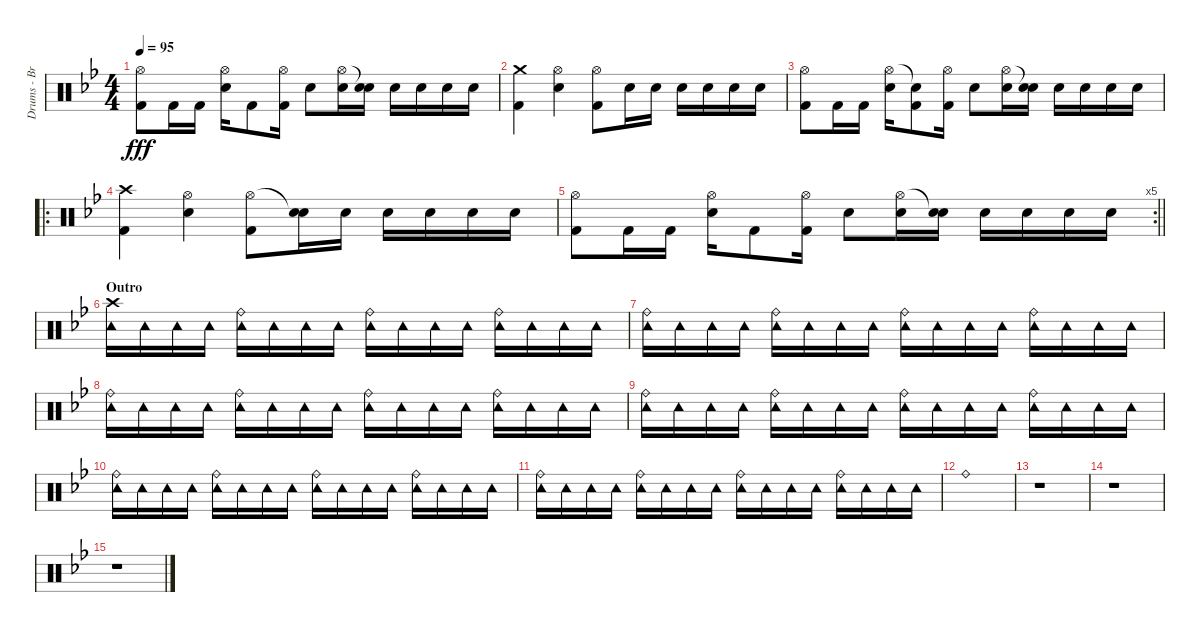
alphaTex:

\track ("Drums - Brooks Wackerman" "Drums - Br") {instrument percussion}
\staff {score}
\articulation defaults
\ts (4 4)
\tempo 95
\clef neutral
\ks bb
("Hi-Hat (open)" "Kick (hit) 2").8{dy fff} "Kick (hit) 2".16 "Kick (hit) 2".16 ("Hi-Hat (open)" "Electric Snare (hit)").16 "Kick (hit) 2".8 ("Hi-Hat (open)" "Kick (hit) 2").16 "Electric Snare (hit)".8 ("Hi-Hat (open)" "Electric Snare (hit)").16 ("Snare (hit)"{t} "Electric Snare (hit)").16 "Electric Snare (hit)".16 "Electric Snare (hit)".16 "Electric Snare (hit)".16 "Electric Snare (hit)".16 |
("Kick (hit) 2" "Crash medium (hit)").4 ("Hi-Hat (open)" "Electric Snare (hit)").4 ("Kick (hit) 2" "Hi-Hat (open)").8 "Electric Snare (hit)".16 "Electric Snare (hit)".16 "Electric Snare (hit)".16 "Electric Snare (hit)".16 "Electric Snare (hit)".16 "Electric Snare (hit)".16 |
("Hi-Hat (open)" "Kick (hit) 2").8 "Kick (hit) 2".16 "Kick (hit) 2".16 ("Hi-Hat (open)" "Electric Snare (hit)").16 ("Snare (hit)"{t} "Kick (hit) 2").8 ("Hi-Hat (open)" "Kick (hit) 2").16 "Electric Snare (hit)".8 ("Hi-Hat (open)" "Electric Snare (hit)").16 ("Snare (hit)"{t} "Electric Snare (hit)").16 "Electric Snare (hit)".16 "Electric Snare (hit)".16 "Electric Snare (hit)".16 "Electric Snare (hit)".16 |
\ro
("Crash high (hit)" "Kick (hit) 2").4 ("Hi-Hat (open)" "Electric Snare (hit)").4 ("Hi-Hat (open)" "Kick (hit) 2").8 ("Snare (hit)"{t} "Electric Snare (hit)").16 "Electric Snare (hit)".16 "Electric Snare (hit)".16 "Electric Snare (hit)".16 "Electric Snare (hit)".16 "Electric Snare (hit)".16 |
\rc 5
\barLineRight lightlight
("Hi-Hat (open)" "Kick (hit) 2").8 "Kick (hit) 2".16 "Kick (hit) 2".16 ("Hi-Hat (open)" "Electric Snare (hit)").16 "Kick (hit) 2".8 ("Hi-Hat (open)" "Kick (hit) 2").16 "Electric Snare (hit)".8 ("Hi-Hat (open)" "Electric Snare (hit)").16 ("Snare (hit)"{t} "Electric Snare (hit)").16 "Electric Snare (hit)".16 "Electric Snare (hit)".16 "Electric Snare (hit)".16 "Electric Snare (hit)".16 |
\section ("" "Outro")
("Tambourine (hit)" "Crash high (hit)").16 "Tambourine (hit)".16 "Tambourine (hit)".16 "Tambourine (hit)".16 ("Tambourine (hit)" "Ride (bell)").16 "Tambourine (hit)".16 "Tambourine (hit)".16 "Tambourine (hit)".16 ("Tambourine (hit)" "Ride (bell)").16 "Tambourine (hit)".16 "Tambourine (hit)".16 "Tambourine (hit)".16 ("Tambourine (hit)" "Ride (bell)").16 "Tambourine (hit)".16 "Tambourine (hit)".16 "Tambourine (hit)".16 |
("Tambourine (hit)" "Ride (bell)").16 "Tambourine (hit)".16 "Tambourine (hit)".16 "Tambourine (hit)".16 ("Tambourine (hit)" "Ride (bell)").16 "Tambourine (hit)".16 "Tambourine (hit)".16 "Tambourine (hit)".16 ("Tambourine (hit)" "Ride (bell)").16 "Tambourine (hit)".16 "Tambourine (hit)".16 "Tambourine (hit)".16 ("Tambourine (hit)" "Ride (bell)").16 "Tambourine (hit)".16 "Tambourine (hit)".16 "Tambourine (hit)".16 |
("Tambourine (hit)" "Ride (bell)").16 "Tambourine (hit)".16 "Tambourine (hit)".16 "Tambourine (hit)".16 ("Tambourine (hit)" "Ride (bell)").16 "Tambourine (hit)".16 "Tambourine (hit)".16 "Tambourine (hit)".16 ("Tambourine (hit)" "Ride (bell)").16 "Tambourine (hit)".16 "Tambourine (hit)".16 "Tambourine (hit)".16 ("Tambourine (hit)" "Ride (bell)").16 "Tambourine (hit)".16 "Tambourine (hit)".16 "Tambourine (hit)".16 |
("Tambourine (hit)" "Ride (bell)").16 "Tambourine (hit)".16 "Tambourine (hit)".16 "Tambourine (hit)".16 ("Tambourine (hit)" "Ride (bell)").16 "Tambourine (hit)".16 "Tambourine (hit)".16 "Tambourine (hit)".16 ("Tambourine (hit)" "Ride (bell)").16 "Tambourine (hit)".16 "Tambourine (hit)".16 "Tambourine (hit)".16 ("Tambourine (hit)" "Ride (bell)").16 "Tambourine (hit)".16 "Tambourine (hit)".16 "Tambourine (hit)".16 |
("Tambourine (hit)" "Ride (bell)").16 "Tambourine (hit)".16 "Tambourine (hit)".16 "Tambourine (hit)".16 ("Tambourine (hit)" "Ride (bell)").16 "Tambourine (hit)".16 "Tambourine (hit)".16 "Tambourine (hit)".16 ("Tambourine (hit)" "Ride (bell)").16 "Tambourine (hit)".16 "Tambourine (hit)".16 "Tambourine (hit)".16 ("Tambourine (hit)" "Ride (bell)").16 "Tambourine (hit)".16 "Tambourine (hit)".16 "Tambourine (hit)".16 |
("Tambourine (hit)" "Ride (bell)").16 "Tambourine (hit)".16 "Tambourine (hit)".16 "Tambourine (hit)".16 ("Tambourine (hit)" "Ride (bell)").16 "Tambourine (hit)".16 "Tambourine (hit)".16 "Tambourine (hit)".16 ("Tambourine (hit)" "Ride (bell)").16 "Tambourine (hit)".16 "Tambourine (hit)".16 "Tambourine (hit)".16 ("Tambourine (hit)" "Ride (bell)").16 "Tambourine (hit)".16 "Tambourine (hit)".16 "Tambourine (hit)".16 |
"Ride (bell)".1 |
r.1 |
r.1 |
r.1
